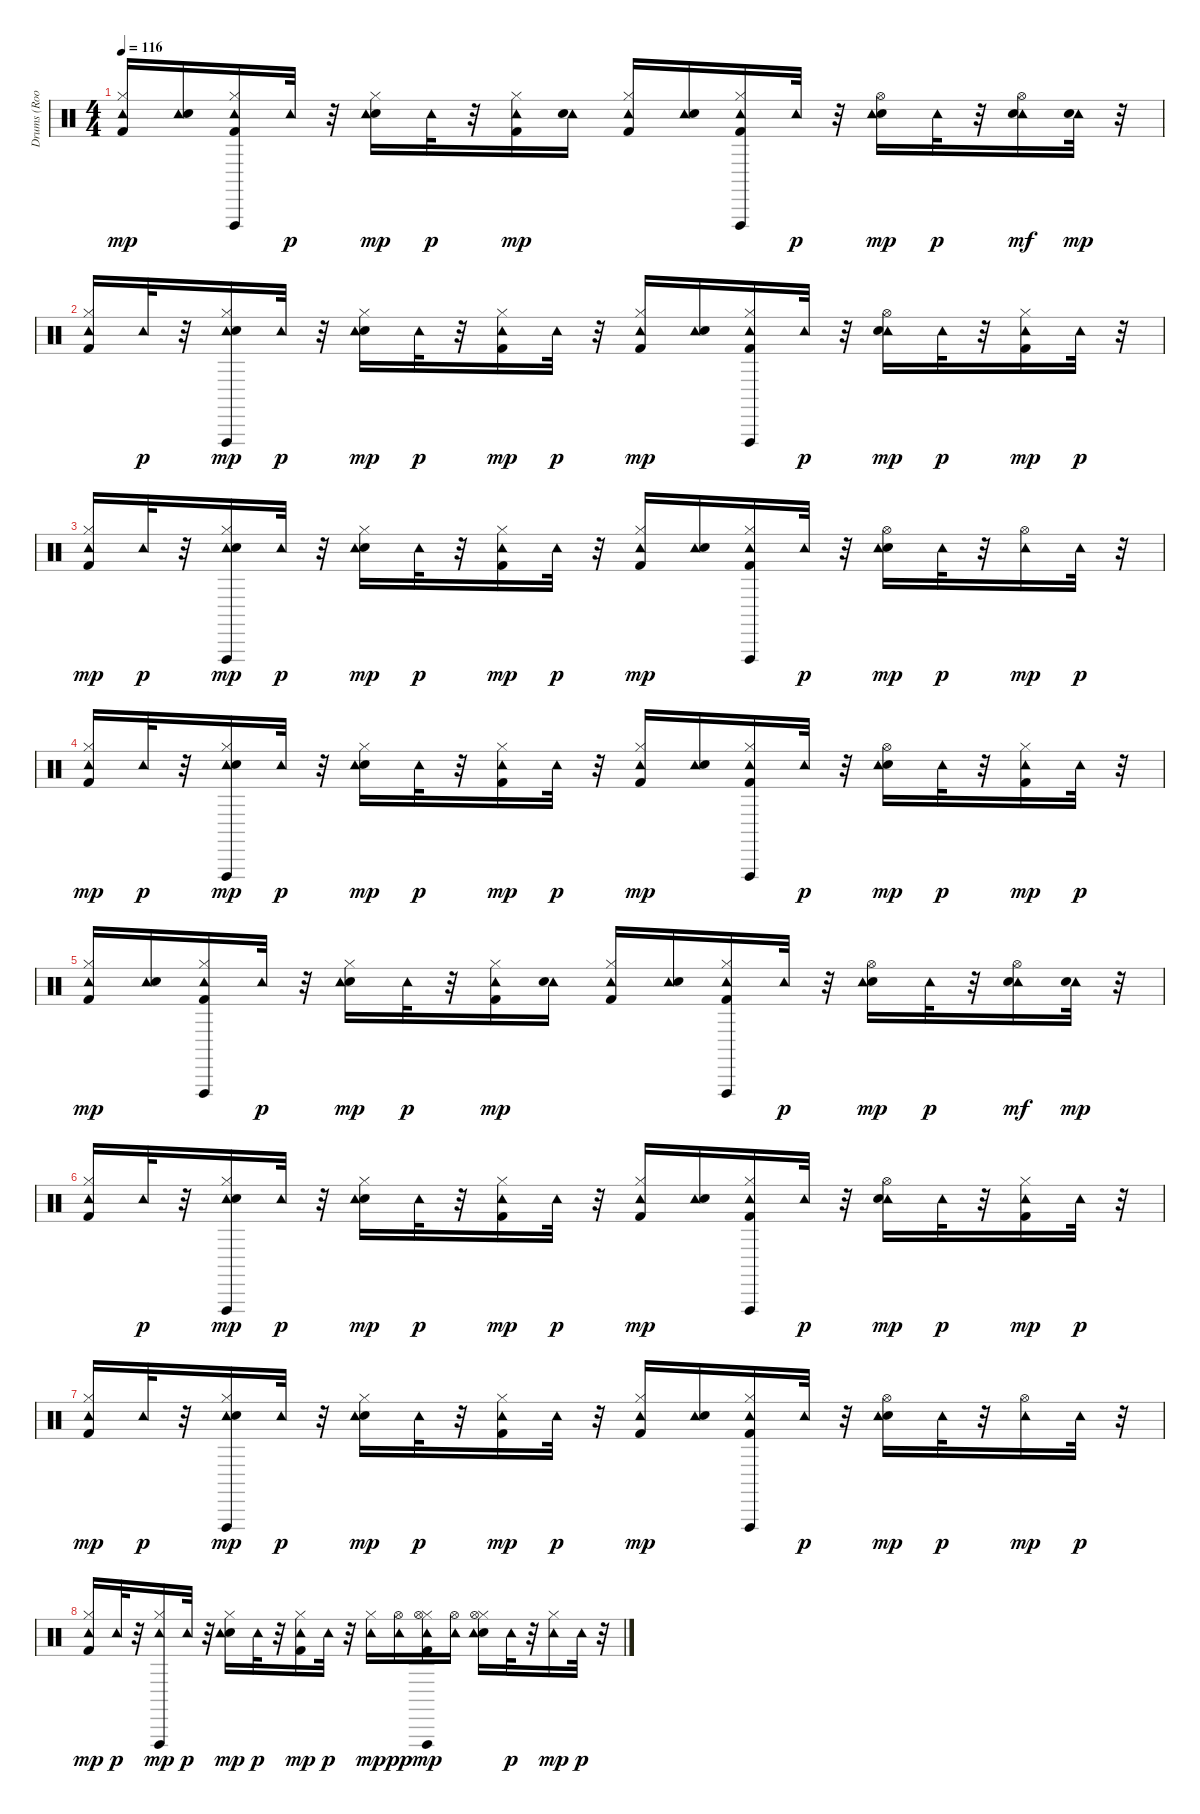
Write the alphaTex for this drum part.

\track ("Drums (Room Kit)    " "Drums (Roo") {instrument percussion}
\staff {score}
\articulation defaults
\ts (4 4)
\tempo 116
\clef neutral
\ks c
("Hi-Hat (closed)" "Kick (hit) 2" "Tambourine (hit)").16{dy mp} ("Tambourine (hit)" "Snare (hit) 2").16 ("Hi-Hat (closed)" "Tambourine (hit)" "Vibraslap (hit)" "Kick (hit) 2").16 "Tambourine (hit)".32{dy p} r.32 ("Snare (hit) 2" "Tambourine (hit)" "Hi-Hat (closed)").16{dy mp} "Tambourine (hit)".32{dy p} r.32 ("Kick (hit) 2" "Tambourine (hit)" "Hi-Hat (closed)").16{dy mp} ("Tambourine (hit)" "Snare (hit) 2").16 ("Hi-Hat (closed)" "Tambourine (hit)" "Kick (hit) 2").16 ("Tambourine (hit)" "Snare (hit) 2").16 ("Kick (hit) 2" "Tambourine (hit)" "Vibraslap (hit)" "Hi-Hat (closed)").16 "Tambourine (hit)".32{dy p} r.32 ("Snare (hit) 2" "Tambourine (hit)" "Hi-Hat (open)").16{dy mp} "Tambourine (hit)".32{dy p} r.32 ("Tambourine (hit)" "Hi-Hat (open)" "Snare (hit) 2").16{dy mf} ("Tambourine (hit)" "Snare (hit) 2").32{dy mp} r.32 |
("Kick (hit) 2" "Hi-Hat (closed)" "Tambourine (hit)").16 "Tambourine (hit)".32{dy p} r.32 ("Hi-Hat (closed)" "Tambourine (hit)" "Vibraslap (hit)" "Snare (hit) 2").16{dy mp} "Tambourine (hit)".32{dy p} r.32 ("Snare (hit) 2" "Hi-Hat (closed)" "Tambourine (hit)").16{dy mp} "Tambourine (hit)".32{dy p} r.32 ("Kick (hit) 2" "Tambourine (hit)" "Hi-Hat (closed)").16{dy mp} "Tambourine (hit)".32{dy p} r.32 ("Hi-Hat (closed)" "Tambourine (hit)" "Kick (hit) 2").16{dy mp} ("Tambourine (hit)" "Snare (hit) 2").16 ("Tambourine (hit)" "Vibraslap (hit)" "Hi-Hat (closed)" "Kick (hit) 2").16 "Tambourine (hit)".32{dy p} r.32 ("Tambourine (hit)" "Hi-Hat (open)" "Snare (hit) 2").16{dy mp} "Tambourine (hit)".32{dy p} r.32 ("Hi-Hat (closed)" "Tambourine (hit)" "Kick (hit) 2").16{dy mp} "Tambourine (hit)".32{dy p} r.32 |
("Hi-Hat (closed)" "Kick (hit) 2" "Tambourine (hit)").16{dy mp} "Tambourine (hit)".32{dy p} r.32 ("Hi-Hat (closed)" "Tambourine (hit)" "Vibraslap (hit)" "Snare (hit) 2").16{dy mp} "Tambourine (hit)".32{dy p} r.32 ("Hi-Hat (closed)" "Snare (hit) 2" "Tambourine (hit)").16{dy mp} "Tambourine (hit)".32{dy p} r.32 ("Kick (hit) 2" "Tambourine (hit)" "Hi-Hat (closed)").16{dy mp} "Tambourine (hit)".32{dy p} r.32 ("Hi-Hat (closed)" "Tambourine (hit)" "Kick (hit) 2").16{dy mp} ("Tambourine (hit)" "Snare (hit) 2").16 ("Kick (hit) 2" "Tambourine (hit)" "Vibraslap (hit)" "Hi-Hat (closed)").16 "Tambourine (hit)".32{dy p} r.32 ("Snare (hit) 2" "Tambourine (hit)" "Hi-Hat (open)").16{dy mp} "Tambourine (hit)".32{dy p} r.32 ("Tambourine (hit)" "Hi-Hat (open)").16{dy mp} "Tambourine (hit)".32{dy p} r.32 |
("Kick (hit) 2" "Hi-Hat (closed)" "Tambourine (hit)").16{dy mp} "Tambourine (hit)".32{dy p} r.32 ("Hi-Hat (closed)" "Tambourine (hit)" "Vibraslap (hit)" "Snare (hit) 2").16{dy mp} "Tambourine (hit)".32{dy p} r.32 ("Snare (hit) 2" "Hi-Hat (closed)" "Tambourine (hit)").16{dy mp} "Tambourine (hit)".32{dy p} r.32 ("Kick (hit) 2" "Tambourine (hit)" "Hi-Hat (closed)").16{dy mp} "Tambourine (hit)".32{dy p} r.32 ("Hi-Hat (closed)" "Tambourine (hit)" "Kick (hit) 2").16{dy mp} ("Tambourine (hit)" "Snare (hit) 2").16 ("Kick (hit) 2" "Tambourine (hit)" "Vibraslap (hit)" "Hi-Hat (closed)").16 "Tambourine (hit)".32{dy p} r.32 ("Snare (hit) 2" "Tambourine (hit)" "Hi-Hat (open)").16{dy mp} "Tambourine (hit)".32{dy p} r.32 ("Hi-Hat (closed)" "Tambourine (hit)" "Kick (hit) 2").16{dy mp} "Tambourine (hit)".32{dy p} r.32 |
("Hi-Hat (closed)" "Kick (hit) 2" "Tambourine (hit)").16{dy mp} ("Tambourine (hit)" "Snare (hit) 2").16 ("Hi-Hat (closed)" "Tambourine (hit)" "Vibraslap (hit)" "Kick (hit) 2").16 "Tambourine (hit)".32{dy p} r.32 ("Snare (hit) 2" "Tambourine (hit)" "Hi-Hat (closed)").16{dy mp} "Tambourine (hit)".32{dy p} r.32 ("Kick (hit) 2" "Tambourine (hit)" "Hi-Hat (closed)").16{dy mp} ("Tambourine (hit)" "Snare (hit) 2").16 ("Hi-Hat (closed)" "Tambourine (hit)" "Kick (hit) 2").16 ("Tambourine (hit)" "Snare (hit) 2").16 ("Kick (hit) 2" "Tambourine (hit)" "Vibraslap (hit)" "Hi-Hat (closed)").16 "Tambourine (hit)".32{dy p} r.32 ("Snare (hit) 2" "Tambourine (hit)" "Hi-Hat (open)").16{dy mp} "Tambourine (hit)".32{dy p} r.32 ("Tambourine (hit)" "Hi-Hat (open)" "Snare (hit) 2").16{dy mf} ("Tambourine (hit)" "Snare (hit) 2").32{dy mp} r.32 |
("Kick (hit) 2" "Hi-Hat (closed)" "Tambourine (hit)").16 "Tambourine (hit)".32{dy p} r.32 ("Hi-Hat (closed)" "Tambourine (hit)" "Vibraslap (hit)" "Snare (hit) 2").16{dy mp} "Tambourine (hit)".32{dy p} r.32 ("Snare (hit) 2" "Hi-Hat (closed)" "Tambourine (hit)").16{dy mp} "Tambourine (hit)".32{dy p} r.32 ("Kick (hit) 2" "Tambourine (hit)" "Hi-Hat (closed)").16{dy mp} "Tambourine (hit)".32{dy p} r.32 ("Hi-Hat (closed)" "Tambourine (hit)" "Kick (hit) 2").16{dy mp} ("Tambourine (hit)" "Snare (hit) 2").16 ("Tambourine (hit)" "Vibraslap (hit)" "Hi-Hat (closed)" "Kick (hit) 2").16 "Tambourine (hit)".32{dy p} r.32 ("Tambourine (hit)" "Hi-Hat (open)" "Snare (hit) 2").16{dy mp} "Tambourine (hit)".32{dy p} r.32 ("Hi-Hat (closed)" "Tambourine (hit)" "Kick (hit) 2").16{dy mp} "Tambourine (hit)".32{dy p} r.32 |
("Hi-Hat (closed)" "Kick (hit) 2" "Tambourine (hit)").16{dy mp} "Tambourine (hit)".32{dy p} r.32 ("Hi-Hat (closed)" "Tambourine (hit)" "Vibraslap (hit)" "Snare (hit) 2").16{dy mp} "Tambourine (hit)".32{dy p} r.32 ("Hi-Hat (closed)" "Snare (hit) 2" "Tambourine (hit)").16{dy mp} "Tambourine (hit)".32{dy p} r.32 ("Kick (hit) 2" "Tambourine (hit)" "Hi-Hat (closed)").16{dy mp} "Tambourine (hit)".32{dy p} r.32 ("Hi-Hat (closed)" "Tambourine (hit)" "Kick (hit) 2").16{dy mp} ("Tambourine (hit)" "Snare (hit) 2").16 ("Kick (hit) 2" "Tambourine (hit)" "Vibraslap (hit)" "Hi-Hat (closed)").16 "Tambourine (hit)".32{dy p} r.32 ("Snare (hit) 2" "Tambourine (hit)" "Hi-Hat (open)").16{dy mp} "Tambourine (hit)".32{dy p} r.32 ("Tambourine (hit)" "Hi-Hat (open)").16{dy mp} "Tambourine (hit)".32{dy p} r.32 |
("Kick (hit) 2" "Hi-Hat (closed)" "Tambourine (hit)").16{dy mp} "Tambourine (hit)".32{dy p} r.32 ("Hi-Hat (closed)" "Tambourine (hit)" "Vibraslap (hit)").16{dy mp} "Tambourine (hit)".32{dy p} r.32 ("Snare (hit) 2" "Hi-Hat (closed)" "Tambourine (hit)").16{dy mp} "Tambourine (hit)".32{dy p} r.32 ("Kick (hit) 2" "Hi-Hat (closed)" "Tambourine (hit)").16{dy mp} "Tambourine (hit)".32{dy p} r.32 ("Hi-Hat (closed)" "Tambourine (hit)").16{dy mp} ("Tambourine (hit)" "Hi-Hat (open)").16{dy pp} ("Kick (hit) 2" "Hi-Hat (closed)" "Tambourine (hit)" "Hi-Hat (open)" "Vibraslap (hit)").16{dy mp} ("Tambourine (hit)" "Hi-Hat (open)").16 ("Snare (hit) 2" "Hi-Hat (closed)" "Tambourine (hit)" "Hi-Hat (open)").16 "Tambourine (hit)".32{dy p} r.32 ("Hi-Hat (closed)" "Tambourine (hit)").16{dy mp} "Tambourine (hit)".32{dy p} r.32
